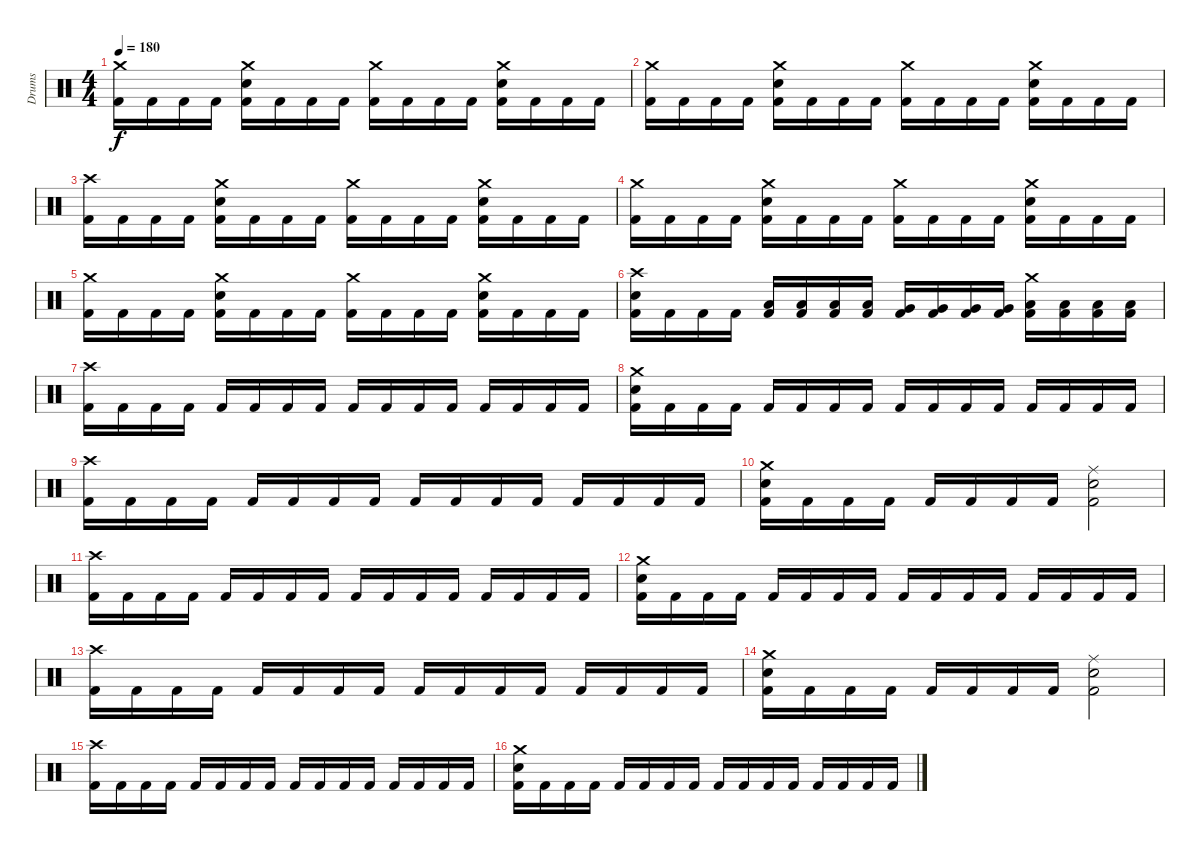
\track ("Drums" "Drums") {instrument percussion}
\staff {score}
\articulation defaults
\ts (4 4)
\tempo 180
\clef neutral
\ks c
("Crash medium (hit)" "Kick (hit) 2").16{dy f} "Kick (hit) 2".16 "Kick (hit) 2".16 "Kick (hit) 2".16 ("Crash medium (hit)" "Electric Snare (hit)" "Kick (hit) 2").16 "Kick (hit) 2".16 "Kick (hit) 2".16 "Kick (hit) 2".16 ("Crash medium (hit)" "Kick (hit) 2").16 "Kick (hit) 2".16 "Kick (hit) 2".16 "Kick (hit) 2".16 ("Crash medium (hit)" "Electric Snare (hit)" "Kick (hit) 2").16 "Kick (hit) 2".16 "Kick (hit) 2".16 "Kick (hit) 2".16 |
("Crash medium (hit)" "Kick (hit) 2").16 "Kick (hit) 2".16 "Kick (hit) 2".16 "Kick (hit) 2".16 ("Crash medium (hit)" "Electric Snare (hit)" "Kick (hit) 2").16 "Kick (hit) 2".16 "Kick (hit) 2".16 "Kick (hit) 2".16 ("Crash medium (hit)" "Kick (hit) 2").16 "Kick (hit) 2".16 "Kick (hit) 2".16 "Kick (hit) 2".16 ("Crash medium (hit)" "Electric Snare (hit)" "Kick (hit) 2").16 "Kick (hit) 2".16 "Kick (hit) 2".16 "Kick (hit) 2".16 |
("Crash high (hit)" "Kick (hit) 2").16 "Kick (hit) 2".16 "Kick (hit) 2".16 "Kick (hit) 2".16 ("Crash medium (hit)" "Electric Snare (hit)" "Kick (hit) 2").16 "Kick (hit) 2".16 "Kick (hit) 2".16 "Kick (hit) 2".16 ("Crash medium (hit)" "Kick (hit) 2").16 "Kick (hit) 2".16 "Kick (hit) 2".16 "Kick (hit) 2".16 ("Crash medium (hit)" "Electric Snare (hit)" "Kick (hit) 2").16 "Kick (hit) 2".16 "Kick (hit) 2".16 "Kick (hit) 2".16 |
("Crash medium (hit)" "Kick (hit) 2").16 "Kick (hit) 2".16 "Kick (hit) 2".16 "Kick (hit) 2".16 ("Crash medium (hit)" "Electric Snare (hit)" "Kick (hit) 2").16 "Kick (hit) 2".16 "Kick (hit) 2".16 "Kick (hit) 2".16 ("Crash medium (hit)" "Kick (hit) 2").16 "Kick (hit) 2".16 "Kick (hit) 2".16 "Kick (hit) 2".16 ("Crash medium (hit)" "Electric Snare (hit)" "Kick (hit) 2").16 "Kick (hit) 2".16 "Kick (hit) 2".16 "Kick (hit) 2".16 |
("Crash medium (hit)" "Kick (hit) 2").16 "Kick (hit) 2".16 "Kick (hit) 2".16 "Kick (hit) 2".16 ("Crash medium (hit)" "Electric Snare (hit)" "Kick (hit) 2").16 "Kick (hit) 2".16 "Kick (hit) 2".16 "Kick (hit) 2".16 ("Crash medium (hit)" "Kick (hit) 2").16 "Kick (hit) 2".16 "Kick (hit) 2".16 "Kick (hit) 2".16 ("Crash medium (hit)" "Electric Snare (hit)" "Kick (hit) 2").16 "Kick (hit) 2".16 "Kick (hit) 2".16 "Kick (hit) 2".16 |
("Crash high (hit)" "Electric Snare (hit)" "Kick (hit) 2").16 "Kick (hit) 2".16 "Kick (hit) 2".16 "Kick (hit) 2".16 ("Low Tom (hit)" "Kick (hit) 2").16 ("Low Tom (hit)" "Kick (hit) 2").16 ("Low Tom (hit)" "Kick (hit) 2").16 ("Low Tom (hit)" "Kick (hit) 2").16 ("Very Low Tom (hit)" "Kick (hit) 2").16 ("Very Low Tom (hit)" "Kick (hit) 2").16 ("Very Low Tom (hit)" "Kick (hit) 2").16 ("Very Low Tom (hit)" "Kick (hit) 2").16 ("Crash medium (hit)" "Low Tom (hit)" "Kick (hit) 2").16 ("Low Tom (hit)" "Kick (hit) 2").16 ("Low Tom (hit)" "Kick (hit) 2").16 ("Low Tom (hit)" "Kick (hit) 2").16 |
("Crash high (hit)" "Kick (hit) 2").16 "Kick (hit) 2".16 "Kick (hit) 2".16 "Kick (hit) 2".16 "Kick (hit) 2".16 "Kick (hit) 2".16 "Kick (hit) 2".16 "Kick (hit) 2".16 "Kick (hit) 2".16 "Kick (hit) 2".16 "Kick (hit) 2".16 "Kick (hit) 2".16 "Kick (hit) 2".16 "Kick (hit) 2".16 "Kick (hit) 2".16 "Kick (hit) 2".16 |
("Crash medium (hit)" "Electric Snare (hit)" "Kick (hit) 2").16 "Kick (hit) 2".16 "Kick (hit) 2".16 "Kick (hit) 2".16 "Kick (hit) 2".16 "Kick (hit) 2".16 "Kick (hit) 2".16 "Kick (hit) 2".16 "Kick (hit) 2".16 "Kick (hit) 2".16 "Kick (hit) 2".16 "Kick (hit) 2".16 "Kick (hit) 2".16 "Kick (hit) 2".16 "Kick (hit) 2".16 "Kick (hit) 2".16 |
("Crash high (hit)" "Kick (hit) 2").16 "Kick (hit) 2".16 "Kick (hit) 2".16 "Kick (hit) 2".16 "Kick (hit) 2".16 "Kick (hit) 2".16 "Kick (hit) 2".16 "Kick (hit) 2".16 "Kick (hit) 2".16 "Kick (hit) 2".16 "Kick (hit) 2".16 "Kick (hit) 2".16 "Kick (hit) 2".16 "Kick (hit) 2".16 "Kick (hit) 2".16 "Kick (hit) 2".16 |
("Crash medium (hit)" "Electric Snare (hit)" "Kick (hit) 2").16 "Kick (hit) 2".16 "Kick (hit) 2".16 "Kick (hit) 2".16 "Kick (hit) 2".16 "Kick (hit) 2".16 "Kick (hit) 2".16 "Kick (hit) 2".16 ("Ride (middle)" "Electric Snare (hit)" "Kick (hit) 2").2 |
("Crash high (hit)" "Kick (hit) 2").16 "Kick (hit) 2".16 "Kick (hit) 2".16 "Kick (hit) 2".16 "Kick (hit) 2".16 "Kick (hit) 2".16 "Kick (hit) 2".16 "Kick (hit) 2".16 "Kick (hit) 2".16 "Kick (hit) 2".16 "Kick (hit) 2".16 "Kick (hit) 2".16 "Kick (hit) 2".16 "Kick (hit) 2".16 "Kick (hit) 2".16 "Kick (hit) 2".16 |
("Crash medium (hit)" "Electric Snare (hit)" "Kick (hit) 2").16 "Kick (hit) 2".16 "Kick (hit) 2".16 "Kick (hit) 2".16 "Kick (hit) 2".16 "Kick (hit) 2".16 "Kick (hit) 2".16 "Kick (hit) 2".16 "Kick (hit) 2".16 "Kick (hit) 2".16 "Kick (hit) 2".16 "Kick (hit) 2".16 "Kick (hit) 2".16 "Kick (hit) 2".16 "Kick (hit) 2".16 "Kick (hit) 2".16 |
("Crash high (hit)" "Kick (hit) 2").16 "Kick (hit) 2".16 "Kick (hit) 2".16 "Kick (hit) 2".16 "Kick (hit) 2".16 "Kick (hit) 2".16 "Kick (hit) 2".16 "Kick (hit) 2".16 "Kick (hit) 2".16 "Kick (hit) 2".16 "Kick (hit) 2".16 "Kick (hit) 2".16 "Kick (hit) 2".16 "Kick (hit) 2".16 "Kick (hit) 2".16 "Kick (hit) 2".16 |
("Crash medium (hit)" "Electric Snare (hit)" "Kick (hit) 2").16 "Kick (hit) 2".16 "Kick (hit) 2".16 "Kick (hit) 2".16 "Kick (hit) 2".16 "Kick (hit) 2".16 "Kick (hit) 2".16 "Kick (hit) 2".16 ("Ride (middle)" "Electric Snare (hit)" "Kick (hit) 2").2 |
("Crash high (hit)" "Kick (hit) 2").16 "Kick (hit) 2".16 "Kick (hit) 2".16 "Kick (hit) 2".16 "Kick (hit) 2".16 "Kick (hit) 2".16 "Kick (hit) 2".16 "Kick (hit) 2".16 "Kick (hit) 2".16 "Kick (hit) 2".16 "Kick (hit) 2".16 "Kick (hit) 2".16 "Kick (hit) 2".16 "Kick (hit) 2".16 "Kick (hit) 2".16 "Kick (hit) 2".16 |
("Crash medium (hit)" "Electric Snare (hit)" "Kick (hit) 2").16 "Kick (hit) 2".16 "Kick (hit) 2".16 "Kick (hit) 2".16 "Kick (hit) 2".16 "Kick (hit) 2".16 "Kick (hit) 2".16 "Kick (hit) 2".16 "Kick (hit) 2".16 "Kick (hit) 2".16 "Kick (hit) 2".16 "Kick (hit) 2".16 "Kick (hit) 2".16 "Kick (hit) 2".16 "Kick (hit) 2".16 "Kick (hit) 2".16
